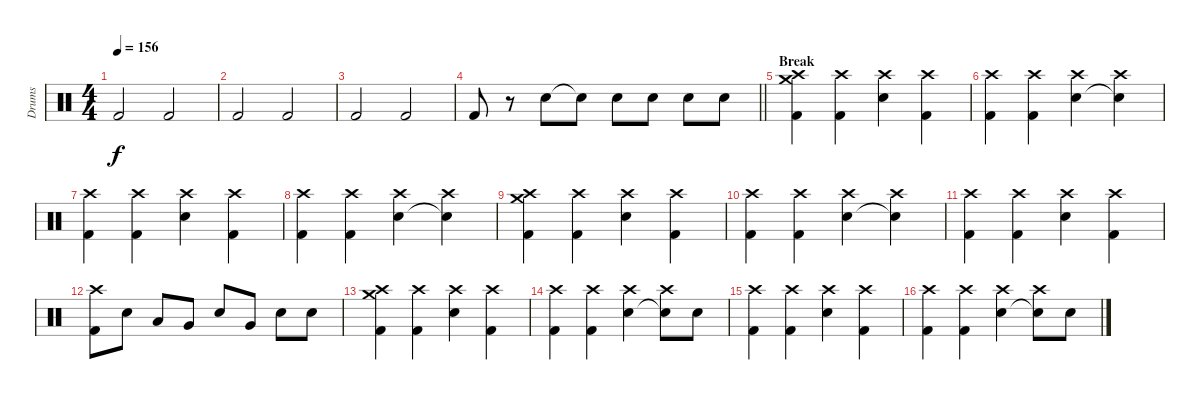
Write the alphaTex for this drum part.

\track ("Drums" "Drums") {instrument percussion}
\staff {score}
\articulation defaults
\ts (4 4)
\tempo 156
\clef neutral
\ks c "Kick (hit) 2".2{dy f} "Kick (hit) 2".2
|
"Kick (hit) 2".2 "Kick (hit) 2".2 |
"Kick (hit) 2".2 "Kick (hit) 2".2 |
\barLineRight lightlight "Kick (hit) 2".8
r.8 "Electric Snare (hit)".8 "Electric Snare (hit)"{t}.8 "Electric Snare (hit)".8 "Electric Snare (hit)".8 "Electric Snare (hit)".8 "Electric Snare (hit)".8 |
\section ("" "Break")
("Kick (hit) 2" "Crash medium (hit)" "Crash high (hit)").4 ("Kick (hit) 2" "Crash high (hit)").4 ("Electric Snare (hit)" "Crash high (hit)").4 ("Kick (hit) 2" "Crash high (hit)").4 |
("Kick (hit) 2" "Crash high (hit)").4 ("Kick (hit) 2" "Crash high (hit)").4 ("Electric Snare (hit)" "Crash high (hit)").4 ("Snare (hit)"{t} "Crash high (hit)").4 |
("Kick (hit) 2" "Crash high (hit)").4 ("Kick (hit) 2" "Crash high (hit)").4 ("Electric Snare (hit)" "Crash high (hit)").4 ("Kick (hit) 2" "Crash high (hit)").4 |
("Kick (hit) 2" "Crash high (hit)").4 ("Kick (hit) 2" "Crash high (hit)").4 ("Electric Snare (hit)" "Crash high (hit)").4 ("Snare (hit)"{t} "Crash high (hit)").4 |
("Kick (hit) 2" "Crash medium (hit)" "Crash high (hit)").4 ("Kick (hit) 2" "Crash high (hit)").4 ("Electric Snare (hit)" "Crash high (hit)").4 ("Kick (hit) 2" "Crash high (hit)").4 |
("Kick (hit) 2" "Crash high (hit)").4 ("Kick (hit) 2" "Crash high (hit)").4 ("Electric Snare (hit)" "Crash high (hit)").4 ("Snare (hit)"{t} "Crash high (hit)").4 |
("Kick (hit) 2" "Crash high (hit)").4 ("Kick (hit) 2" "Crash high (hit)").4 ("Electric Snare (hit)" "Crash high (hit)").4 ("Kick (hit) 2" "Crash high (hit)").4 |
("Kick (hit) 2" "Crash high (hit)").8 "Electric Snare (hit)".8 "Low Tom (hit)".8 "Very Low Tom (hit)".8 "Electric Snare (hit)".8 "Very Low Tom (hit)".8 "Electric Snare (hit)".8 "Electric Snare (hit)".8 |
("Kick (hit) 2" "Crash medium (hit)" "Crash high (hit)").4 ("Kick (hit) 2" "Crash high (hit)").4 ("Electric Snare (hit)" "Crash high (hit)").4 ("Kick (hit) 2" "Crash high (hit)").4 |
("Kick (hit) 2" "Crash high (hit)").4 ("Kick (hit) 2" "Crash high (hit)").4 ("Electric Snare (hit)" "Crash high (hit)").4 ("Snare (hit)"{t} "Crash high (hit)").8 "Electric Snare (hit)".8 |
("Kick (hit) 2" "Crash high (hit)").4 ("Kick (hit) 2" "Crash high (hit)").4 ("Electric Snare (hit)" "Crash high (hit)").4 ("Kick (hit) 2" "Crash high (hit)").4 |
("Kick (hit) 2" "Crash high (hit)").4 ("Kick (hit) 2" "Crash high (hit)").4 ("Electric Snare (hit)" "Crash high (hit)").4 ("Snare (hit)"{t} "Crash high (hit)").8 "Electric Snare (hit)".8
